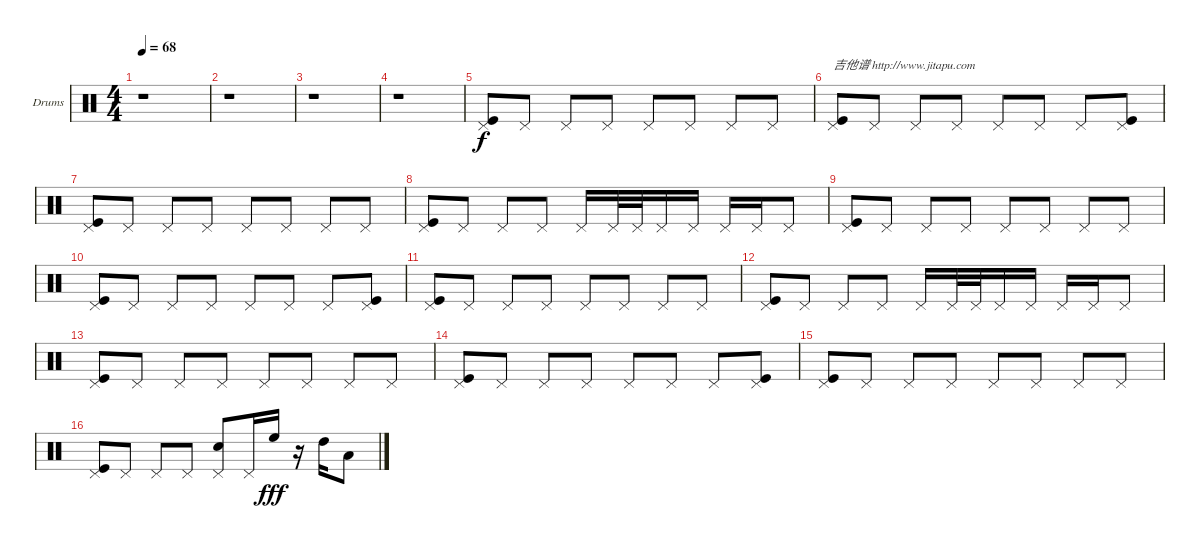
\bracketExtendMode groupsimilarinstruments
\firstSystemTrackNameOrientation horizontal
\otherSystemsTrackNameOrientation horizontal
\track ("Drumkit" "Drums") {instrument percussion}
\staff {score}
\articulation defaults
\ts (4 4)
\beaming (8 2 2 2 2)
\tempo 68
\clef neutral
\ks c
r.1{dy f} |
r.1 |
r.1 |
r.1 |
("Pedal Hi-Hat (hit)" "Kick (hit)").8 "Pedal Hi-Hat (hit)".8 "Pedal Hi-Hat (hit)".8 "Pedal Hi-Hat (hit)".8 "Pedal Hi-Hat (hit)".8 "Pedal Hi-Hat (hit)".8 "Pedal Hi-Hat (hit)".8 "Pedal Hi-Hat (hit)".8 |
("Pedal Hi-Hat (hit)" "Kick (hit)").8{txt "吉他谱 http://www.jitapu.com"} "Pedal Hi-Hat (hit)".8 "Pedal Hi-Hat (hit)".8 "Pedal Hi-Hat (hit)".8 "Pedal Hi-Hat (hit)".8 "Pedal Hi-Hat (hit)".8 "Pedal Hi-Hat (hit)".8 ("Pedal Hi-Hat (hit)" "Kick (hit)").8 |
("Pedal Hi-Hat (hit)" "Kick (hit)").8 "Pedal Hi-Hat (hit)".8 "Pedal Hi-Hat (hit)".8 "Pedal Hi-Hat (hit)".8 "Pedal Hi-Hat (hit)".8 "Pedal Hi-Hat (hit)".8 "Pedal Hi-Hat (hit)".8 "Pedal Hi-Hat (hit)".8 |
("Pedal Hi-Hat (hit)" "Kick (hit)").8 "Pedal Hi-Hat (hit)".8 "Pedal Hi-Hat (hit)".8 "Pedal Hi-Hat (hit)".8 "Pedal Hi-Hat (hit)".16 "Pedal Hi-Hat (hit)".32 "Pedal Hi-Hat (hit)".32 "Pedal Hi-Hat (hit)".16 "Pedal Hi-Hat (hit)".16 "Pedal Hi-Hat (hit)".16 "Pedal Hi-Hat (hit)".16 "Pedal Hi-Hat (hit)".8 |
("Pedal Hi-Hat (hit)" "Kick (hit)").8 "Pedal Hi-Hat (hit)".8 "Pedal Hi-Hat (hit)".8 "Pedal Hi-Hat (hit)".8 "Pedal Hi-Hat (hit)".8 "Pedal Hi-Hat (hit)".8 "Pedal Hi-Hat (hit)".8 "Pedal Hi-Hat (hit)".8 |
("Pedal Hi-Hat (hit)" "Kick (hit)").8 "Pedal Hi-Hat (hit)".8 "Pedal Hi-Hat (hit)".8 "Pedal Hi-Hat (hit)".8 "Pedal Hi-Hat (hit)".8 "Pedal Hi-Hat (hit)".8 "Pedal Hi-Hat (hit)".8 ("Pedal Hi-Hat (hit)" "Kick (hit)").8 |
("Pedal Hi-Hat (hit)" "Kick (hit)").8 "Pedal Hi-Hat (hit)".8 "Pedal Hi-Hat (hit)".8 "Pedal Hi-Hat (hit)".8 "Pedal Hi-Hat (hit)".8 "Pedal Hi-Hat (hit)".8 "Pedal Hi-Hat (hit)".8 "Pedal Hi-Hat (hit)".8 |
("Pedal Hi-Hat (hit)" "Kick (hit)").8 "Pedal Hi-Hat (hit)".8 "Pedal Hi-Hat (hit)".8 "Pedal Hi-Hat (hit)".8 "Pedal Hi-Hat (hit)".16 "Pedal Hi-Hat (hit)".32 "Pedal Hi-Hat (hit)".32 "Pedal Hi-Hat (hit)".16 "Pedal Hi-Hat (hit)".16 "Pedal Hi-Hat (hit)".16 "Pedal Hi-Hat (hit)".16 "Pedal Hi-Hat (hit)".8 |
("Pedal Hi-Hat (hit)" "Kick (hit)").8 "Pedal Hi-Hat (hit)".8 "Pedal Hi-Hat (hit)".8 "Pedal Hi-Hat (hit)".8 "Pedal Hi-Hat (hit)".8 "Pedal Hi-Hat (hit)".8 "Pedal Hi-Hat (hit)".8 "Pedal Hi-Hat (hit)".8 |
("Pedal Hi-Hat (hit)" "Kick (hit)").8 "Pedal Hi-Hat (hit)".8 "Pedal Hi-Hat (hit)".8 "Pedal Hi-Hat (hit)".8 "Pedal Hi-Hat (hit)".8 "Pedal Hi-Hat (hit)".8 "Pedal Hi-Hat (hit)".8 ("Pedal Hi-Hat (hit)" "Kick (hit)").8 |
("Pedal Hi-Hat (hit)" "Kick (hit)").8 "Pedal Hi-Hat (hit)".8 "Pedal Hi-Hat (hit)".8 "Pedal Hi-Hat (hit)".8 "Pedal Hi-Hat (hit)".8 "Pedal Hi-Hat (hit)".8 "Pedal Hi-Hat (hit)".8 "Pedal Hi-Hat (hit)".8 |
("Pedal Hi-Hat (hit)" "Kick (hit)").8 "Pedal Hi-Hat (hit)".8 "Pedal Hi-Hat (hit)".8 "Pedal Hi-Hat (hit)".8 ("Pedal Hi-Hat (hit)" "Snare (hit) 2").8 "Pedal Hi-Hat (hit)".16 "High Floor Tom (hit)".16{dy fff} r.16 "High Tom (hit)".16 "Low Tom (hit)".8
